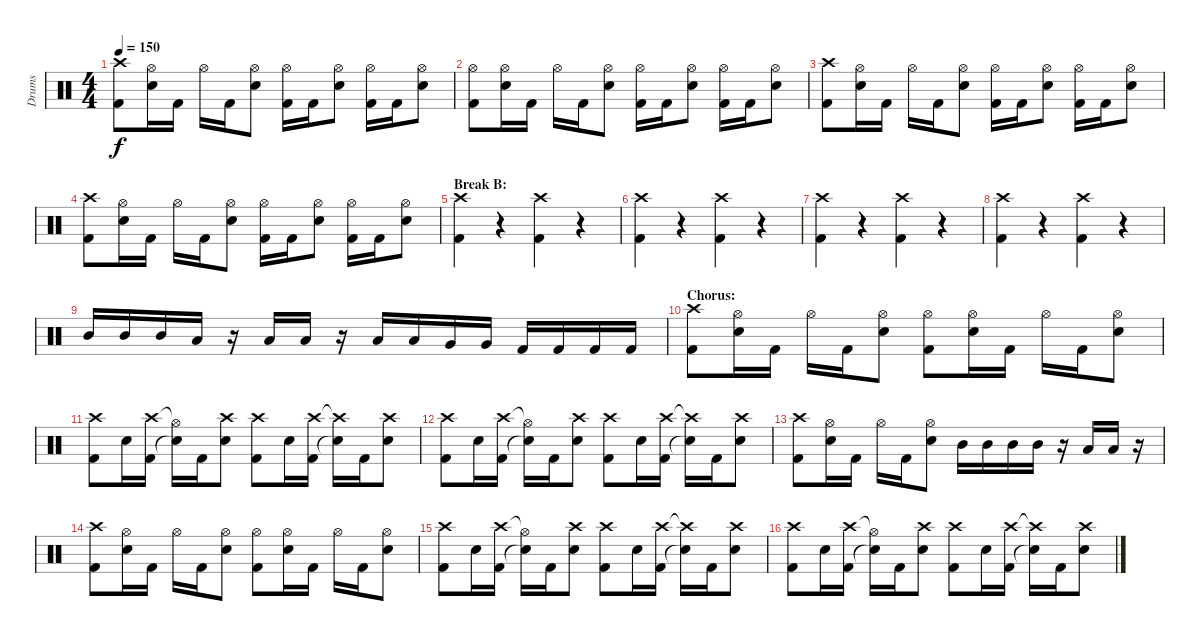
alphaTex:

\track ("Drums" "Drums") {instrument percussion}
\staff {score}
\articulation defaults
\ts (4 4)
\tempo 150
\clef neutral
\ks c
("Crash high (hit)" "Kick (hit) 2").8{dy f} ("Hi-Hat (open)" "Snare (hit) 2").16 "Kick (hit) 2".16 "Hi-Hat (open)".16 "Kick (hit) 2".16 ("Hi-Hat (open)" "Snare (hit) 2").8 ("Hi-Hat (open)" "Kick (hit) 2").16 "Kick (hit) 2".16 ("Hi-Hat (open)" "Snare (hit) 2").8 ("Hi-Hat (open)" "Kick (hit) 2").16 "Kick (hit) 2".16 ("Hi-Hat (open)" "Snare (hit) 2").8 |
("Hi-Hat (open)" "Kick (hit) 2").8 ("Hi-Hat (open)" "Snare (hit) 2").16 "Kick (hit) 2".16 "Hi-Hat (open)".16 "Kick (hit) 2".16 ("Hi-Hat (open)" "Snare (hit) 2").8 ("Hi-Hat (open)" "Kick (hit) 2").16 "Kick (hit) 2".16 ("Hi-Hat (open)" "Snare (hit) 2").8 ("Hi-Hat (open)" "Kick (hit) 2").16 "Kick (hit) 2".16 ("Hi-Hat (open)" "Snare (hit) 2").8 |
("Crash high (hit)" "Kick (hit) 2").8 ("Hi-Hat (open)" "Snare (hit) 2").16 "Kick (hit) 2".16 "Hi-Hat (open)".16 "Kick (hit) 2".16 ("Hi-Hat (open)" "Snare (hit) 2").8 ("Hi-Hat (open)" "Kick (hit) 2").16 "Kick (hit) 2".16 ("Hi-Hat (open)" "Snare (hit) 2").8 ("Hi-Hat (open)" "Kick (hit) 2").16 "Kick (hit) 2".16 ("Hi-Hat (open)" "Snare (hit) 2").8 |
("Crash high (hit)" "Kick (hit) 2").8 ("Hi-Hat (open)" "Snare (hit) 2").16 "Kick (hit) 2".16 "Hi-Hat (open)".16 "Kick (hit) 2".16 ("Hi-Hat (open)" "Snare (hit) 2").8 ("Hi-Hat (open)" "Kick (hit) 2").16 "Kick (hit) 2".16 ("Hi-Hat (open)" "Snare (hit) 2").8 ("Hi-Hat (open)" "Kick (hit) 2").16 "Kick (hit) 2".16 ("Hi-Hat (open)" "Snare (hit) 2").8 |
\section ("" "Break B:")
("Crash high (hit)" "Kick (hit) 2").4 r.4 ("Crash high (hit)" "Kick (hit) 2").4 r.4 |
("Crash high (hit)" "Kick (hit) 2").4 r.4 ("Crash high (hit)" "Kick (hit) 2").4 r.4 |
("Crash high (hit)" "Kick (hit) 2").4 r.4 ("Crash high (hit)" "Kick (hit) 2").4 r.4 |
("Crash high (hit)" "Kick (hit) 2").4 r.4 ("Crash high (hit)" "Kick (hit) 2").4 r.4 |
"Mid Tom (hit)".16 "Mid Tom (hit)".16 "Mid Tom (hit)".16 "Low Tom (hit)".16 r.16 "Low Tom (hit)".16 "Low Tom (hit)".16 r.16 "Low Tom (hit)".16 "Low Tom (hit)".16 "Very Low Tom (hit)".16 "Very Low Tom (hit)".16 "Kick (hit) 2".16 "Kick (hit) 2".16 "Kick (hit) 2".16 "Kick (hit) 2".16 |
\section ("" "Chorus:")
("Crash high (hit)" "Kick (hit) 2").8 ("Hi-Hat (open)" "Snare (hit) 2").16 "Kick (hit) 2".16 "Hi-Hat (open)".16 "Kick (hit) 2".16 ("Hi-Hat (open)" "Snare (hit) 2").8 ("Hi-Hat (open)" "Kick (hit) 2").8 ("Hi-Hat (open)" "Snare (hit) 2").16 "Kick (hit) 2".16 "Hi-Hat (open)".16 "Kick (hit) 2".16 ("Hi-Hat (open)" "Snare (hit) 2").8 |
("Crash high (hit)" "Kick (hit) 2").8 "Snare (hit) 2".16 ("Crash high (hit)" "Kick (hit) 2").16 ("Hi-Hat (open)"{t} "Snare (hit)"{t}).16 "Kick (hit) 2".16 ("Crash high (hit)" "Snare (hit) 2").8 ("Crash high (hit)" "Kick (hit) 2").8 "Snare (hit) 2".16 ("Crash high (hit)" "Kick (hit) 2").16 ("Crash high (hit)"{t} "Snare (hit)"{t}).16 "Kick (hit) 2".16 ("Crash high (hit)" "Snare (hit) 2").8 |
("Crash high (hit)" "Kick (hit) 2").8 "Snare (hit) 2".16 ("Crash high (hit)" "Kick (hit) 2").16 ("Hi-Hat (open)"{t} "Snare (hit)"{t}).16 "Kick (hit) 2".16 ("Crash high (hit)" "Snare (hit) 2").8 ("Crash high (hit)" "Kick (hit) 2").8 "Snare (hit) 2".16 ("Crash high (hit)" "Kick (hit) 2").16 ("Crash high (hit)"{t} "Snare (hit)"{t}).16 "Kick (hit) 2".16 ("Crash high (hit)" "Snare (hit) 2").8 |
("Crash high (hit)" "Kick (hit) 2").8 ("Hi-Hat (open)" "Snare (hit) 2").16 "Kick (hit) 2".16 "Hi-Hat (open)".16 "Kick (hit) 2".16 ("Hi-Hat (open)" "Snare (hit) 2").8 "Mid Tom (hit)".16 "Mid Tom (hit)".16 "Mid Tom (hit)".16 "Mid Tom (hit)".16 r.16 "Low Tom (hit)".16 "Low Tom (hit)".16 r.16 |
("Crash high (hit)" "Kick (hit) 2").8 ("Hi-Hat (open)" "Snare (hit) 2").16 "Kick (hit) 2".16 "Hi-Hat (open)".16 "Kick (hit) 2".16 ("Hi-Hat (open)" "Snare (hit) 2").8 ("Hi-Hat (open)" "Kick (hit) 2").8 ("Hi-Hat (open)" "Snare (hit) 2").16 "Kick (hit) 2".16 "Hi-Hat (open)".16 "Kick (hit) 2".16 ("Hi-Hat (open)" "Snare (hit) 2").8 |
("Crash high (hit)" "Kick (hit) 2").8 "Snare (hit) 2".16 ("Crash high (hit)" "Kick (hit) 2").16 ("Hi-Hat (open)"{t} "Snare (hit)"{t}).16 "Kick (hit) 2".16 ("Crash high (hit)" "Snare (hit) 2").8 ("Crash high (hit)" "Kick (hit) 2").8 "Snare (hit) 2".16 ("Crash high (hit)" "Kick (hit) 2").16 ("Crash high (hit)"{t} "Snare (hit)"{t}).16 "Kick (hit) 2".16 ("Crash high (hit)" "Snare (hit) 2").8 |
("Crash high (hit)" "Kick (hit) 2").8 "Snare (hit) 2".16 ("Crash high (hit)" "Kick (hit) 2").16 ("Hi-Hat (open)"{t} "Snare (hit)"{t}).16 "Kick (hit) 2".16 ("Crash high (hit)" "Snare (hit) 2").8 ("Crash high (hit)" "Kick (hit) 2").8 "Snare (hit) 2".16 ("Crash high (hit)" "Kick (hit) 2").16 ("Crash high (hit)"{t} "Snare (hit)"{t}).16 "Kick (hit) 2".16 ("Crash high (hit)" "Snare (hit) 2").8
